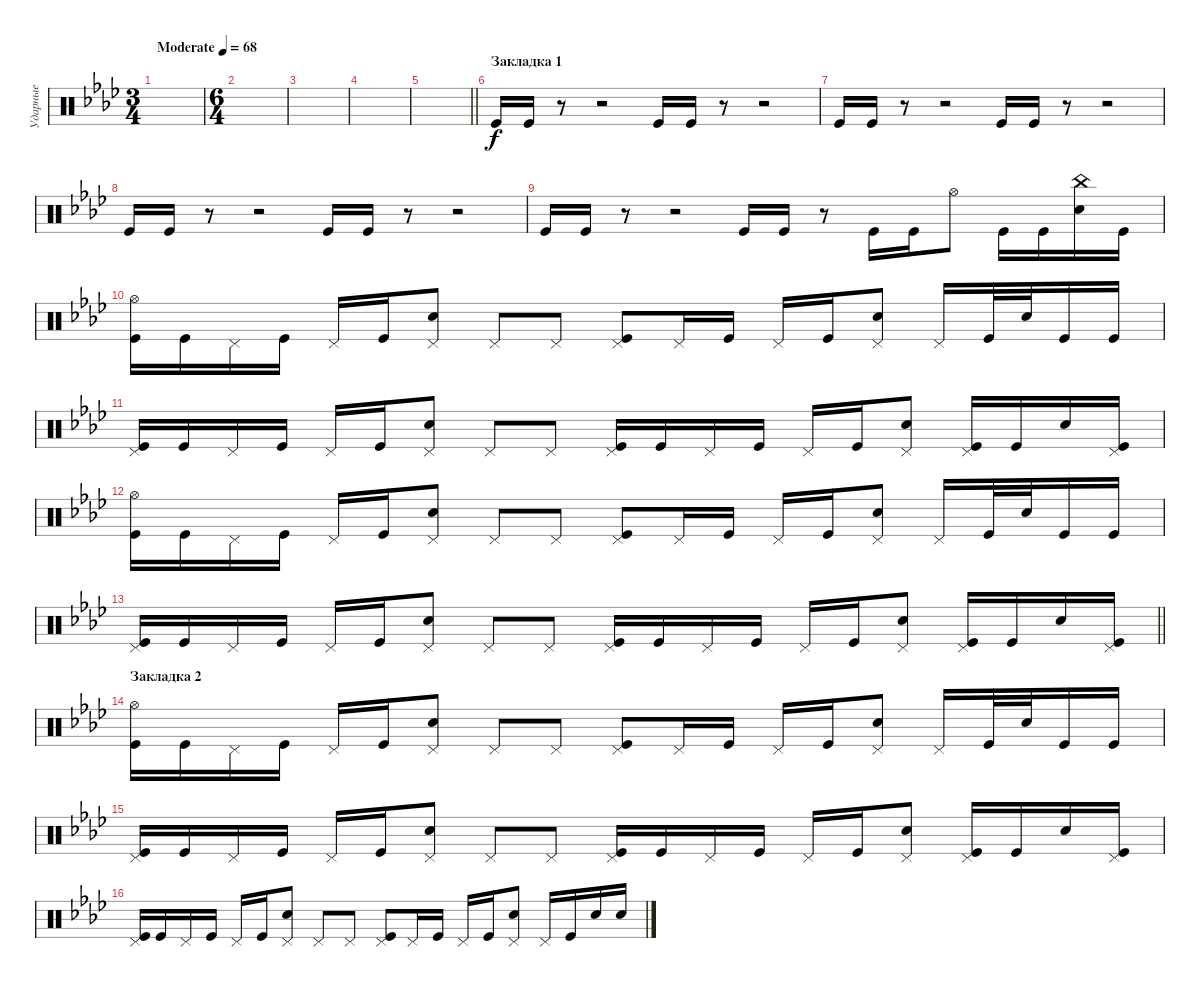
\track ("Ударные" "Ударные") {instrument percussion}
\staff {score}
\articulation defaults
\ts (3 4)
\tempo (68 "Moderate")
\clef neutral
\ks fminor
|
\ts (6 4)
|
|
|
\barLineRight lightlight
|
\section ("" "Закладка 1")
"Kick (hit)".16 "Kick (hit)".16 r.8 r.2 "Kick (hit)".16 "Kick (hit)".16 r.8 r.2 |
"Kick (hit)".16 "Kick (hit)".16 r.8 r.2 "Kick (hit)".16 "Kick (hit)".16 r.8 r.2 |
"Kick (hit)".16 "Kick (hit)".16 r.8 r.2 "Kick (hit)".16 "Kick (hit)".16 r.8 r.2 |
"Kick (hit)".16 "Kick (hit)".16 r.8 r.2 "Kick (hit)".16 "Kick (hit)".16 r.8 "Kick (hit)".16 "Kick (hit)".16 "Hi-Hat (open)".8 "Kick (hit)".16 "Kick (hit)".16 ("Snare (hit) 2" "China (hit)").16 "Kick (hit)".16 |
("Kick (hit)" "Hi-Hat (open)").16 "Kick (hit)".16 "Pedal Hi-Hat (hit)".16 "Kick (hit)".16 "Pedal Hi-Hat (hit)".16 "Kick (hit)".16 ("Snare (hit) 2" "Pedal Hi-Hat (hit)").8 "Pedal Hi-Hat (hit)".8 "Pedal Hi-Hat (hit)".8 ("Kick (hit)" "Pedal Hi-Hat (hit)").8 "Pedal Hi-Hat (hit)".16 "Kick (hit)".16 "Pedal Hi-Hat (hit)".16 "Kick (hit)".16 ("Snare (hit) 2" "Pedal Hi-Hat (hit)").8 "Pedal Hi-Hat (hit)".16 "Kick (hit)".32 "Snare (hit) 2".32 "Kick (hit)".16 "Kick (hit)".16 |
("Kick (hit)" "Pedal Hi-Hat (hit)").16 "Kick (hit)".16 "Pedal Hi-Hat (hit)".16 "Kick (hit)".16 "Pedal Hi-Hat (hit)".16 "Kick (hit)".16 ("Snare (hit) 2" "Pedal Hi-Hat (hit)").8 "Pedal Hi-Hat (hit)".8 "Pedal Hi-Hat (hit)".8 ("Kick (hit)" "Pedal Hi-Hat (hit)").16 "Kick (hit)".16 "Pedal Hi-Hat (hit)".16 "Kick (hit)".16 "Pedal Hi-Hat (hit)".16 "Kick (hit)".16 ("Snare (hit) 2" "Pedal Hi-Hat (hit)").8 ("Kick (hit)" "Pedal Hi-Hat (hit)").16 "Kick (hit)".16 "Snare (hit) 2".16 ("Kick (hit)" "Pedal Hi-Hat (hit)").16 |
("Kick (hit)" "Hi-Hat (open)").16 "Kick (hit)".16 "Pedal Hi-Hat (hit)".16 "Kick (hit)".16 "Pedal Hi-Hat (hit)".16 "Kick (hit)".16 ("Snare (hit) 2" "Pedal Hi-Hat (hit)").8 "Pedal Hi-Hat (hit)".8 "Pedal Hi-Hat (hit)".8 ("Kick (hit)" "Pedal Hi-Hat (hit)").8 "Pedal Hi-Hat (hit)".16 "Kick (hit)".16 "Pedal Hi-Hat (hit)".16 "Kick (hit)".16 ("Snare (hit) 2" "Pedal Hi-Hat (hit)").8 "Pedal Hi-Hat (hit)".16 "Kick (hit)".32 "Snare (hit) 2".32 "Kick (hit)".16 "Kick (hit)".16 |
\barLineRight lightlight
("Kick (hit)" "Pedal Hi-Hat (hit)").16 "Kick (hit)".16 "Pedal Hi-Hat (hit)".16 "Kick (hit)".16 "Pedal Hi-Hat (hit)".16 "Kick (hit)".16 ("Snare (hit) 2" "Pedal Hi-Hat (hit)").8 "Pedal Hi-Hat (hit)".8 "Pedal Hi-Hat (hit)".8 ("Kick (hit)" "Pedal Hi-Hat (hit)").16 "Kick (hit)".16 "Pedal Hi-Hat (hit)".16 "Kick (hit)".16 "Pedal Hi-Hat (hit)".16 "Kick (hit)".16 ("Snare (hit) 2" "Pedal Hi-Hat (hit)").8 ("Kick (hit)" "Pedal Hi-Hat (hit)").16 "Kick (hit)".16 "Snare (hit) 2".16 ("Kick (hit)" "Pedal Hi-Hat (hit)").16 |
\section ("" "Закладка 2")
("Kick (hit)" "Hi-Hat (open)").16 "Kick (hit)".16 "Pedal Hi-Hat (hit)".16 "Kick (hit)".16 "Pedal Hi-Hat (hit)".16 "Kick (hit)".16 ("Snare (hit) 2" "Pedal Hi-Hat (hit)").8 "Pedal Hi-Hat (hit)".8 "Pedal Hi-Hat (hit)".8 ("Kick (hit)" "Pedal Hi-Hat (hit)").8 "Pedal Hi-Hat (hit)".16 "Kick (hit)".16 "Pedal Hi-Hat (hit)".16 "Kick (hit)".16 ("Snare (hit) 2" "Pedal Hi-Hat (hit)").8 "Pedal Hi-Hat (hit)".16 "Kick (hit)".32 "Snare (hit) 2".32 "Kick (hit)".16 "Kick (hit)".16 |
("Kick (hit)" "Pedal Hi-Hat (hit)").16 "Kick (hit)".16 "Pedal Hi-Hat (hit)".16 "Kick (hit)".16 "Pedal Hi-Hat (hit)".16 "Kick (hit)".16 ("Snare (hit) 2" "Pedal Hi-Hat (hit)").8 "Pedal Hi-Hat (hit)".8 "Pedal Hi-Hat (hit)".8 ("Kick (hit)" "Pedal Hi-Hat (hit)").16 "Kick (hit)".16 "Pedal Hi-Hat (hit)".16 "Kick (hit)".16 "Pedal Hi-Hat (hit)".16 "Kick (hit)".16 ("Snare (hit) 2" "Pedal Hi-Hat (hit)").8 ("Kick (hit)" "Pedal Hi-Hat (hit)").16 "Kick (hit)".16 "Snare (hit) 2".16 ("Kick (hit)" "Pedal Hi-Hat (hit)").16 |
("Kick (hit)" "Pedal Hi-Hat (hit)").16 "Kick (hit)".16 "Pedal Hi-Hat (hit)".16 "Kick (hit)".16 "Pedal Hi-Hat (hit)".16 "Kick (hit)".16 ("Snare (hit) 2" "Pedal Hi-Hat (hit)").8 "Pedal Hi-Hat (hit)".8 "Pedal Hi-Hat (hit)".8 ("Kick (hit)" "Pedal Hi-Hat (hit)").8 "Pedal Hi-Hat (hit)".16 "Kick (hit)".16 "Pedal Hi-Hat (hit)".16 "Kick (hit)".16 ("Snare (hit) 2" "Pedal Hi-Hat (hit)").8 "Pedal Hi-Hat (hit)".16 "Kick (hit)".16 "Snare (hit) 2".16 "Snare (hit) 2".16
